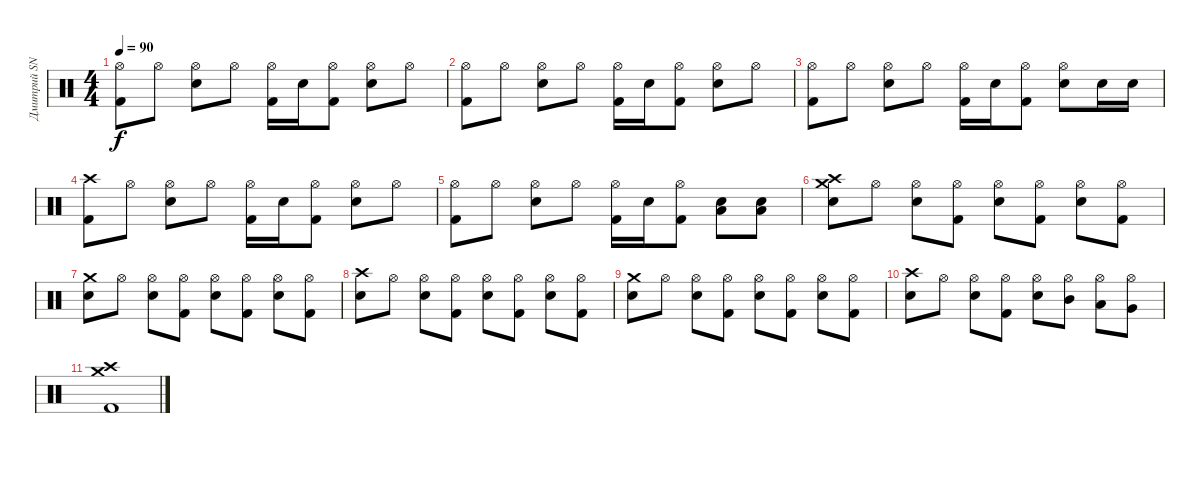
\track ("Дмитрий SNAKE Хакимов" "Дмитрий SN") {instrument percussion}
\staff {score}
\articulation defaults
\ts (4 4)
\tempo 90
\clef neutral
\ks c
("Hi-Hat (open)" "Kick (hit) 2").8{dy f} "Hi-Hat (open)".8 ("Hi-Hat (open)" "Snare (hit) 2").8 "Hi-Hat (open)".8 ("Hi-Hat (open)" "Kick (hit) 2").16 "Snare (hit) 2".16 ("Hi-Hat (open)" "Kick (hit) 2").8 ("Hi-Hat (open)" "Snare (hit) 2").8 "Hi-Hat (open)".8 |
("Hi-Hat (open)" "Kick (hit) 2").8 "Hi-Hat (open)".8 ("Hi-Hat (open)" "Snare (hit) 2").8 "Hi-Hat (open)".8 ("Hi-Hat (open)" "Kick (hit) 2").16 "Snare (hit) 2".16 ("Hi-Hat (open)" "Kick (hit) 2").8 ("Hi-Hat (open)" "Snare (hit) 2").8 "Hi-Hat (open)".8 |
("Hi-Hat (open)" "Kick (hit) 2").8 "Hi-Hat (open)".8 ("Hi-Hat (open)" "Snare (hit) 2").8 "Hi-Hat (open)".8 ("Hi-Hat (open)" "Kick (hit) 2").16 "Snare (hit) 2".16 ("Hi-Hat (open)" "Kick (hit) 2").8 ("Hi-Hat (open)" "Snare (hit) 2").8 "Snare (hit) 2".16 "Snare (hit) 2".16 |
("Crash high (hit)" "Kick (hit) 2").8 "Hi-Hat (open)".8 ("Hi-Hat (open)" "Snare (hit) 2").8 "Hi-Hat (open)".8 ("Hi-Hat (open)" "Kick (hit) 2").16 "Snare (hit) 2".16 ("Hi-Hat (open)" "Kick (hit) 2").8 ("Hi-Hat (open)" "Snare (hit) 2").8 "Hi-Hat (open)".8 |
("Hi-Hat (open)" "Kick (hit) 2").8 "Hi-Hat (open)".8 ("Hi-Hat (open)" "Snare (hit) 2").8 "Hi-Hat (open)".8 ("Hi-Hat (open)" "Kick (hit) 2").16 "Snare (hit) 2".16 ("Hi-Hat (open)" "Kick (hit) 2").8 ("Snare (hit) 2" "Low Tom (hit)").8 ("Snare (hit) 2" "Low Tom (hit)").8 |
("Crash high (hit)" "Crash medium (hit)" "Snare (hit) 2").8 "Hi-Hat (open)".8 ("Hi-Hat (open)" "Snare (hit) 2").8 ("Hi-Hat (open)" "Kick (hit) 2").8 ("Hi-Hat (open)" "Snare (hit) 2").8 ("Hi-Hat (open)" "Kick (hit) 2").8 ("Hi-Hat (open)" "Snare (hit) 2").8 ("Hi-Hat (open)" "Kick (hit) 2").8 |
("Crash medium (hit)" "Snare (hit) 2").8 "Hi-Hat (open)".8 ("Hi-Hat (open)" "Snare (hit) 2").8 ("Hi-Hat (open)" "Kick (hit) 2").8 ("Hi-Hat (open)" "Snare (hit) 2").8 ("Hi-Hat (open)" "Kick (hit) 2").8 ("Hi-Hat (open)" "Snare (hit) 2").8 ("Hi-Hat (open)" "Kick (hit) 2").8 |
("Crash high (hit)" "Snare (hit) 2").8 "Hi-Hat (open)".8 ("Hi-Hat (open)" "Snare (hit) 2").8 ("Hi-Hat (open)" "Kick (hit) 2").8 ("Hi-Hat (open)" "Snare (hit) 2").8 ("Hi-Hat (open)" "Kick (hit) 2").8 ("Hi-Hat (open)" "Snare (hit) 2").8 ("Hi-Hat (open)" "Kick (hit) 2").8 |
("Crash medium (hit)" "Snare (hit) 2").8 "Hi-Hat (open)".8 ("Hi-Hat (open)" "Snare (hit) 2").8 ("Hi-Hat (open)" "Kick (hit) 2").8 ("Hi-Hat (open)" "Snare (hit) 2").8 ("Hi-Hat (open)" "Kick (hit) 2").8 ("Hi-Hat (open)" "Snare (hit) 2").8 ("Hi-Hat (open)" "Kick (hit) 2").8 |
("Crash high (hit)" "Snare (hit) 2").8 "Hi-Hat (open)".8 ("Hi-Hat (open)" "Snare (hit) 2").8 ("Hi-Hat (open)" "Kick (hit) 2").8 ("Hi-Hat (open)" "Snare (hit) 2").8 ("Hi-Hat (open)" "Mid Tom (hit)").8 ("Hi-Hat (open)" "Low Tom (hit)").8 ("Hi-Hat (open)" "Very Low Tom (hit)").8 |
("Crash high (hit)" "Crash medium (hit)" "Kick (hit) 2").1
